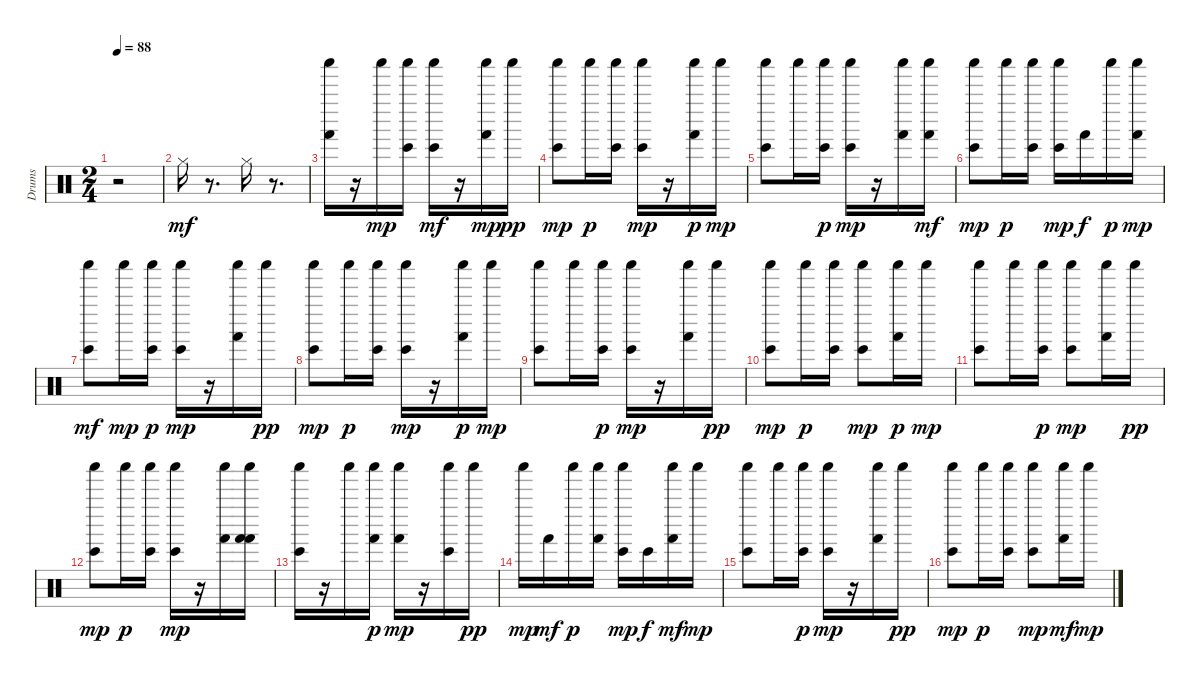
\track ("Drums" "Drums") {instrument percussion}
\staff {score}
\articulation defaults
\ts (2 4)
\tempo 88
\clef neutral
\ks c
r.2{dy mf} |
"Hi-Hat (closed)".16 r.8{d} "Hi-Hat (closed)".16 r.8{d} |
("Shaker (hit)" "Hand (hit)").16 r.16 "Shaker (hit)".16{dy mp} ("Shaker (hit)" "Bongo High (hit)").16 ("Shaker (hit)" "Bongo High (hit)").16{dy mf} r.16 ("Shaker (hit)" "Hand (hit)").16{dy mp} "Shaker (hit)".16{dy pp} |
("Shaker (hit)" "Bongo High (hit)").8{dy mp} "Shaker (hit)".16{dy p} ("Bongo High (hit)" "Shaker (hit)").16 ("Shaker (hit)" "Bongo High (hit)").16{dy mp} r.16 ("Hand (hit)" "Shaker (hit)").16{dy p} "Shaker (hit)".16{dy mp} |
("Shaker (hit)" "Bongo High (hit)").8 "Shaker (hit)".16 ("Shaker (hit)" "Bongo High (hit)").16{dy p} ("Shaker (hit)" "Bongo High (hit)").16{dy mp} r.16 ("Shaker (hit)" "Hand (hit)").16 ("Shaker (hit)" "Hand (hit)").16{dy mf} |
("Shaker (hit)" "Bongo High (hit)").8{dy mp} "Shaker (hit)".16{dy p} ("Bongo High (hit)" "Shaker (hit)").16 ("Bongo High (hit)" "Shaker (hit)").16{dy mp} "Hand (hit)".16{dy f} "Shaker (hit)".16{dy p} ("Hand (hit)" "Shaker (hit)").16{dy mp} |
("Shaker (hit)" "Bongo High (hit)").8{dy mf} "Shaker (hit)".16{dy mp} ("Shaker (hit)" "Bongo High (hit)").16{dy p} ("Shaker (hit)" "Bongo High (hit)").16{dy mp} r.16 ("Shaker (hit)" "Hand (hit)").16 "Shaker (hit)".16{dy pp} |
("Shaker (hit)" "Bongo High (hit)").8{dy mp} "Shaker (hit)".16{dy p} ("Bongo High (hit)" "Shaker (hit)").16 ("Shaker (hit)" "Bongo High (hit)").16{dy mp} r.16 ("Shaker (hit)" "Hand (hit)").16{dy p} "Shaker (hit)".16{dy mp} |
("Shaker (hit)" "Bongo High (hit)").8 "Shaker (hit)".16 ("Bongo High (hit)" "Shaker (hit)").16{dy p} ("Bongo High (hit)" "Shaker (hit)").16{dy mp} r.16 ("Hand (hit)" "Shaker (hit)").16 "Shaker (hit)".16{dy pp} |
("Shaker (hit)" "Bongo High (hit)").8{dy mp} "Shaker (hit)".16{dy p} ("Bongo High (hit)" "Shaker (hit)").16 ("Bongo High (hit)" "Shaker (hit)").8{dy mp} ("Hand (hit)" "Shaker (hit)").16{dy p} "Shaker (hit)".16{dy mp} |
("Shaker (hit)" "Bongo High (hit)").8 "Shaker (hit)".16 ("Bongo High (hit)" "Shaker (hit)").16{dy p} ("Shaker (hit)" "Bongo High (hit)").8{dy mp} ("Shaker (hit)" "Hand (hit)").16 "Shaker (hit)".16{dy pp} |
("Shaker (hit)" "Bongo High (hit)").8{dy mp} "Shaker (hit)".16{dy p} ("Bongo High (hit)" "Shaker (hit)").16 ("Shaker (hit)" "Bongo High (hit)").16{dy mp} r.16 ("Shaker (hit)" "Hand (hit)").16 ("Hand (hit)" "Shaker (hit)" "Hand (hit)").16 |
("Bongo High (hit)" "Shaker (hit)").16 r.16 "Shaker (hit)".16 ("Hand (hit)" "Shaker (hit)").16{dy p} ("Shaker (hit)" "Hand (hit)").16{dy mp} r.16 ("Shaker (hit)" "Bongo High (hit)").16 "Shaker (hit)".16{dy pp} |
"Shaker (hit)".16{dy mp} "Hand (hit)".16{dy mf} "Shaker (hit)".16{dy p} ("Hand (hit)" "Shaker (hit)").16 ("Bongo High (hit)" "Shaker (hit)").16{dy mp} "Bongo High (hit)".16{dy f} ("Shaker (hit)" "Hand (hit)").16{dy mf} "Shaker (hit)".16{dy mp} |
("Shaker (hit)" "Bongo High (hit)").8 "Shaker (hit)".16 ("Bongo High (hit)" "Shaker (hit)").16{dy p} ("Shaker (hit)" "Bongo High (hit)").16{dy mp} r.16 ("Shaker (hit)" "Hand (hit)").16 "Shaker (hit)".16{dy pp} |
("Shaker (hit)" "Bongo High (hit)").8{dy mp} "Shaker (hit)".16{dy p} ("Bongo High (hit)" "Shaker (hit)").16 ("Shaker (hit)" "Bongo High (hit)").8{dy mp} ("Shaker (hit)" "Hand (hit)").16{dy mf} "Shaker (hit)".16{dy mp}
